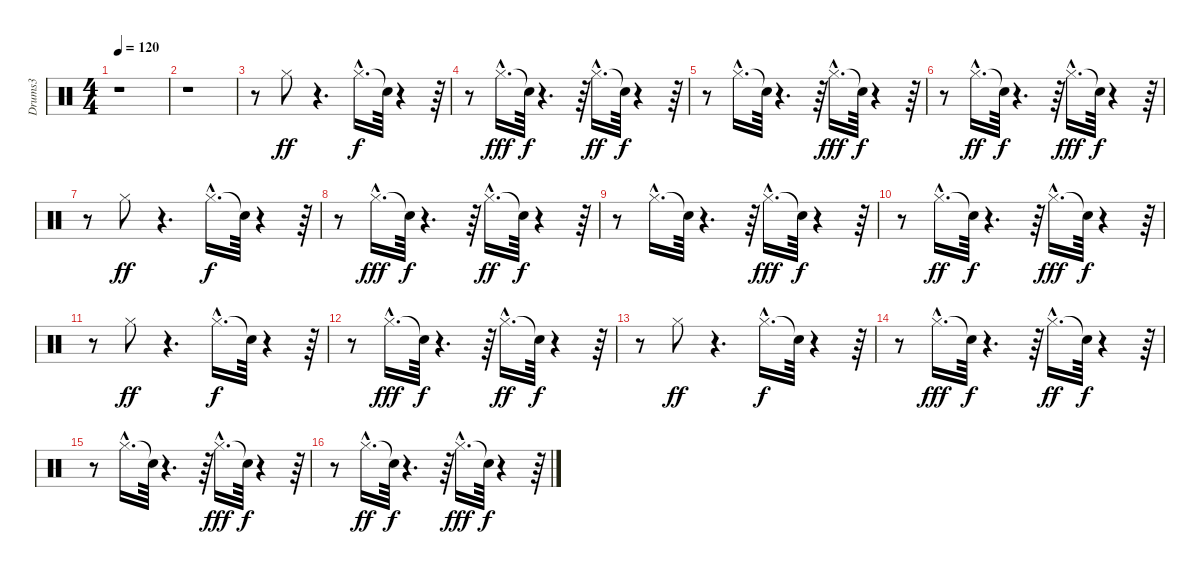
\track ("Drums3" "Drums3") {instrument percussion}
\staff {score}
\articulation defaults
\ts (4 4)
\tempo 120
\clef neutral
\ks c
r.1{dy ff} |
r.1 |
r.8 "Hi-Hat (closed)".8 r.4{d} "Hi-Hat (closed)"{hac}.16{d dy f} "Snare (hit)"{t}.64 r.4 r.64 |
r.8 "Hi-Hat (closed)"{hac}.16{d dy fff} "Snare (hit)"{t}.64{dy f} r.4{d} r.64 "Hi-Hat (closed)"{hac}.16{d dy ff} "Snare (hit)"{t}.64{dy f} r.4 r.64 |
r.8 "Hi-Hat (closed)"{hac}.16{d} "Snare (hit)"{t}.64 r.4{d} r.64 "Hi-Hat (closed)"{hac}.16{d dy fff} "Snare (hit)"{t}.64{dy f} r.4 r.64 |
r.8 "Hi-Hat (closed)"{hac}.16{d dy ff} "Snare (hit)"{t}.64{dy f} r.4{d} r.64 "Hi-Hat (closed)"{hac}.16{d dy fff} "Snare (hit)"{t}.64{dy f} r.4 r.64 |
r.8 "Hi-Hat (closed)".8{dy ff} r.4{d} "Hi-Hat (closed)"{hac}.16{d dy f} "Snare (hit)"{t}.64 r.4 r.64 |
r.8 "Hi-Hat (closed)"{hac}.16{d dy fff} "Snare (hit)"{t}.64{dy f} r.4{d} r.64 "Hi-Hat (closed)"{hac}.16{d dy ff} "Snare (hit)"{t}.64{dy f} r.4 r.64 |
r.8 "Hi-Hat (closed)"{hac}.16{d} "Snare (hit)"{t}.64 r.4{d} r.64 "Hi-Hat (closed)"{hac}.16{d dy fff} "Snare (hit)"{t}.64{dy f} r.4 r.64 |
r.8 "Hi-Hat (closed)"{hac}.16{d dy ff} "Snare (hit)"{t}.64{dy f} r.4{d} r.64 "Hi-Hat (closed)"{hac}.16{d dy fff} "Snare (hit)"{t}.64{dy f} r.4 r.64 |
r.8 "Hi-Hat (closed)".8{dy ff} r.4{d} "Hi-Hat (closed)"{hac}.16{d dy f} "Snare (hit)"{t}.64 r.4 r.64 |
r.8 "Hi-Hat (closed)"{hac}.16{d dy fff} "Snare (hit)"{t}.64{dy f} r.4{d} r.64 "Hi-Hat (closed)"{hac}.16{d dy ff} "Snare (hit)"{t}.64{dy f} r.4 r.64 |
r.8 "Hi-Hat (closed)".8{dy ff} r.4{d} "Hi-Hat (closed)"{hac}.16{d dy f} "Snare (hit)"{t}.64 r.4 r.64 |
r.8 "Hi-Hat (closed)"{hac}.16{d dy fff} "Snare (hit)"{t}.64{dy f} r.4{d} r.64 "Hi-Hat (closed)"{hac}.16{d dy ff} "Snare (hit)"{t}.64{dy f} r.4 r.64 |
r.8 "Hi-Hat (closed)"{hac}.16{d} "Snare (hit)"{t}.64 r.4{d} r.64 "Hi-Hat (closed)"{hac}.16{d dy fff} "Snare (hit)"{t}.64{dy f} r.4 r.64 |
r.8 "Hi-Hat (closed)"{hac}.16{d dy ff} "Snare (hit)"{t}.64{dy f} r.4{d} r.64 "Hi-Hat (closed)"{hac}.16{d dy fff} "Snare (hit)"{t}.64{dy f} r.4 r.64
